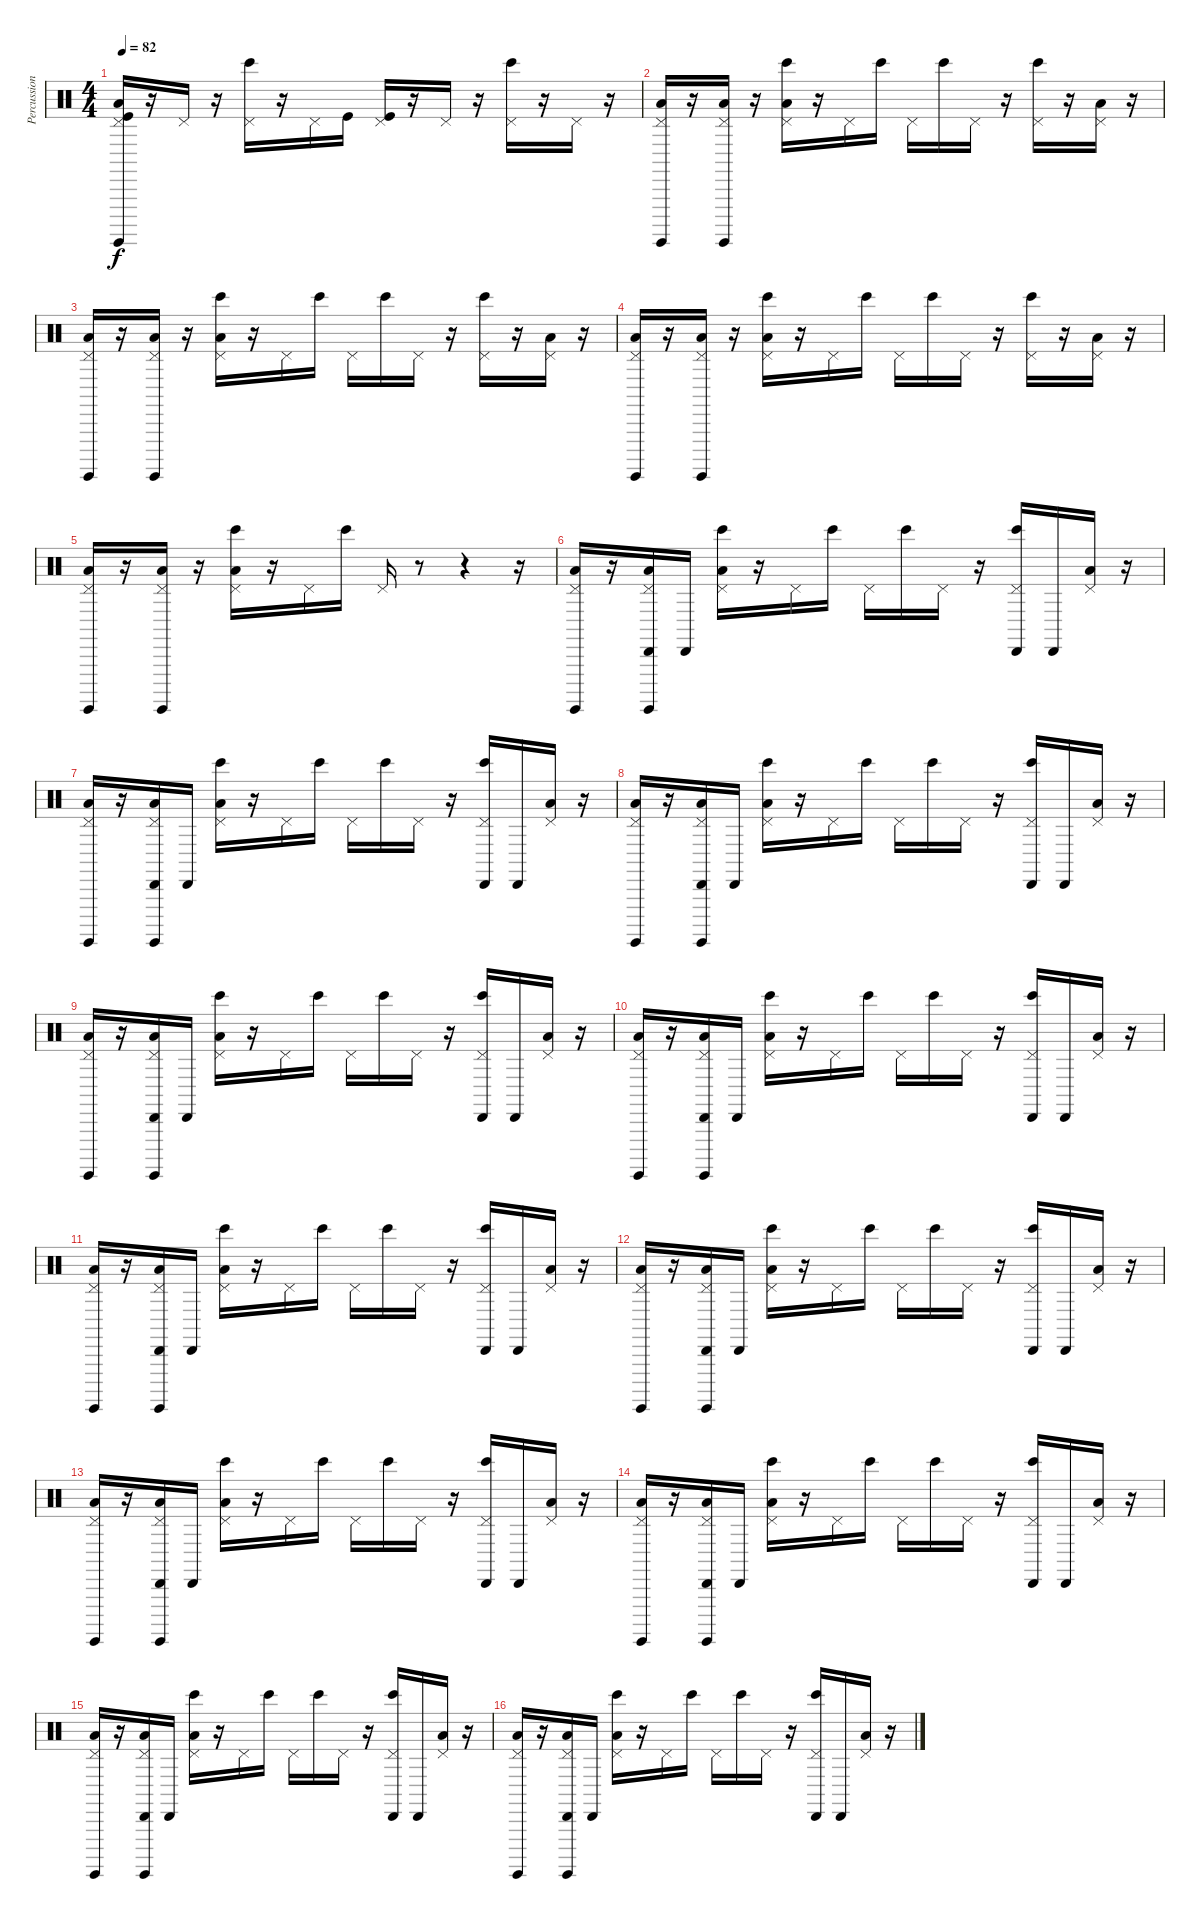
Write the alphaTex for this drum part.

\track ("Percussions" "Percussion") {instrument percussion}
\staff {score}
\articulation defaults
\ts (4 4)
\tempo 82
\clef neutral
\ks c
("Pedal Hi-Hat (hit)" "Low Floor Tom (hit)" "Surdo (hit)" "Kick (hit)").16{dy f} r.16 "Pedal Hi-Hat (hit)".16 r.16 ("Pedal Hi-Hat (hit)" "Bongo High (hit)").16 r.16 "Pedal Hi-Hat (hit)".16 "Kick (hit)".16 ("Pedal Hi-Hat (hit)" "Kick (hit)").16 r.16 "Pedal Hi-Hat (hit)".16 r.16 ("Pedal Hi-Hat (hit)" "Bongo High (hit)").16 r.16 "Pedal Hi-Hat (hit)".16 r.16 |
("Pedal Hi-Hat (hit)" "Low Floor Tom (hit)" "Surdo (hit)").16 r.16 ("Pedal Hi-Hat (hit)" "Low Floor Tom (hit)" "Surdo (hit)").16 r.16 ("Pedal Hi-Hat (hit)" "Low Floor Tom (hit)" "Bongo High (hit)").16 r.16 "Pedal Hi-Hat (hit)".16 "Bongo High (hit)".16 "Pedal Hi-Hat (hit)".16 "Bongo High (hit)".16 "Pedal Hi-Hat (hit)".16 r.16 ("Pedal Hi-Hat (hit)" "Bongo High (hit)").16 r.16 ("Pedal Hi-Hat (hit)" "Low Floor Tom (hit)").16 r.16 |
("Pedal Hi-Hat (hit)" "Low Floor Tom (hit)" "Surdo (hit)").16 r.16 ("Pedal Hi-Hat (hit)" "Low Floor Tom (hit)" "Surdo (hit)").16 r.16 ("Pedal Hi-Hat (hit)" "Low Floor Tom (hit)" "Bongo High (hit)").16 r.16 "Pedal Hi-Hat (hit)".16 "Bongo High (hit)".16 "Pedal Hi-Hat (hit)".16 "Bongo High (hit)".16 "Pedal Hi-Hat (hit)".16 r.16 ("Pedal Hi-Hat (hit)" "Bongo High (hit)").16 r.16 ("Pedal Hi-Hat (hit)" "Low Floor Tom (hit)").16 r.16 |
("Pedal Hi-Hat (hit)" "Low Floor Tom (hit)" "Surdo (hit)").16 r.16 ("Pedal Hi-Hat (hit)" "Low Floor Tom (hit)" "Surdo (hit)").16 r.16 ("Pedal Hi-Hat (hit)" "Low Floor Tom (hit)" "Bongo High (hit)").16 r.16 "Pedal Hi-Hat (hit)".16 "Bongo High (hit)".16 "Pedal Hi-Hat (hit)".16 "Bongo High (hit)".16 "Pedal Hi-Hat (hit)".16 r.16 ("Pedal Hi-Hat (hit)" "Bongo High (hit)").16 r.16 ("Pedal Hi-Hat (hit)" "Low Floor Tom (hit)").16 r.16 |
("Pedal Hi-Hat (hit)" "Low Floor Tom (hit)" "Surdo (hit)").16 r.16 ("Pedal Hi-Hat (hit)" "Low Floor Tom (hit)" "Surdo (hit)").16 r.16 ("Pedal Hi-Hat (hit)" "Low Floor Tom (hit)" "Bongo High (hit)").16 r.16 "Pedal Hi-Hat (hit)".16 "Bongo High (hit)".16 "Pedal Hi-Hat (hit)".16 r.8 r.4 r.16 |
("Pedal Hi-Hat (hit)" "Low Floor Tom (hit)" "Surdo (hit)").16 r.16 ("Pedal Hi-Hat (hit)" "Cabasa (hit)" "Low Floor Tom (hit)" "Surdo (hit)").16 "Cabasa (hit)".16 ("Pedal Hi-Hat (hit)" "Low Floor Tom (hit)" "Bongo High (hit)").16 r.16 "Pedal Hi-Hat (hit)".16 "Bongo High (hit)".16 "Pedal Hi-Hat (hit)".16 "Bongo High (hit)".16 "Pedal Hi-Hat (hit)".16 r.16 ("Pedal Hi-Hat (hit)" "Cabasa (hit)" "Bongo High (hit)").16 "Cabasa (hit)".16 ("Pedal Hi-Hat (hit)" "Low Floor Tom (hit)").16 r.16 |
("Pedal Hi-Hat (hit)" "Low Floor Tom (hit)" "Surdo (hit)").16 r.16 ("Pedal Hi-Hat (hit)" "Cabasa (hit)" "Low Floor Tom (hit)" "Surdo (hit)").16 "Cabasa (hit)".16 ("Pedal Hi-Hat (hit)" "Low Floor Tom (hit)" "Bongo High (hit)").16 r.16 "Pedal Hi-Hat (hit)".16 "Bongo High (hit)".16 "Pedal Hi-Hat (hit)".16 "Bongo High (hit)".16 "Pedal Hi-Hat (hit)".16 r.16 ("Pedal Hi-Hat (hit)" "Cabasa (hit)" "Bongo High (hit)").16 "Cabasa (hit)".16 ("Pedal Hi-Hat (hit)" "Low Floor Tom (hit)").16 r.16 |
("Pedal Hi-Hat (hit)" "Low Floor Tom (hit)" "Surdo (hit)").16 r.16 ("Pedal Hi-Hat (hit)" "Cabasa (hit)" "Low Floor Tom (hit)" "Surdo (hit)").16 "Cabasa (hit)".16 ("Pedal Hi-Hat (hit)" "Low Floor Tom (hit)" "Bongo High (hit)").16 r.16 "Pedal Hi-Hat (hit)".16 "Bongo High (hit)".16 "Pedal Hi-Hat (hit)".16 "Bongo High (hit)".16 "Pedal Hi-Hat (hit)".16 r.16 ("Pedal Hi-Hat (hit)" "Cabasa (hit)" "Bongo High (hit)").16 "Cabasa (hit)".16 ("Pedal Hi-Hat (hit)" "Low Floor Tom (hit)").16 r.16 |
("Pedal Hi-Hat (hit)" "Low Floor Tom (hit)" "Surdo (hit)").16 r.16 ("Pedal Hi-Hat (hit)" "Cabasa (hit)" "Low Floor Tom (hit)" "Surdo (hit)").16 "Cabasa (hit)".16 ("Pedal Hi-Hat (hit)" "Low Floor Tom (hit)" "Bongo High (hit)").16 r.16 "Pedal Hi-Hat (hit)".16 "Bongo High (hit)".16 "Pedal Hi-Hat (hit)".16 "Bongo High (hit)".16 "Pedal Hi-Hat (hit)".16 r.16 ("Pedal Hi-Hat (hit)" "Cabasa (hit)" "Bongo High (hit)").16 "Cabasa (hit)".16 ("Pedal Hi-Hat (hit)" "Low Floor Tom (hit)").16 r.16 |
("Pedal Hi-Hat (hit)" "Low Floor Tom (hit)" "Surdo (hit)").16 r.16 ("Pedal Hi-Hat (hit)" "Cabasa (hit)" "Low Floor Tom (hit)" "Surdo (hit)").16 "Cabasa (hit)".16 ("Pedal Hi-Hat (hit)" "Low Floor Tom (hit)" "Bongo High (hit)").16 r.16 "Pedal Hi-Hat (hit)".16 "Bongo High (hit)".16 "Pedal Hi-Hat (hit)".16 "Bongo High (hit)".16 "Pedal Hi-Hat (hit)".16 r.16 ("Pedal Hi-Hat (hit)" "Cabasa (hit)" "Bongo High (hit)").16 "Cabasa (hit)".16 ("Pedal Hi-Hat (hit)" "Low Floor Tom (hit)").16 r.16 |
("Pedal Hi-Hat (hit)" "Low Floor Tom (hit)" "Surdo (hit)").16 r.16 ("Pedal Hi-Hat (hit)" "Cabasa (hit)" "Low Floor Tom (hit)" "Surdo (hit)").16 "Cabasa (hit)".16 ("Pedal Hi-Hat (hit)" "Low Floor Tom (hit)" "Bongo High (hit)").16 r.16 "Pedal Hi-Hat (hit)".16 "Bongo High (hit)".16 "Pedal Hi-Hat (hit)".16 "Bongo High (hit)".16 "Pedal Hi-Hat (hit)".16 r.16 ("Pedal Hi-Hat (hit)" "Cabasa (hit)" "Bongo High (hit)").16 "Cabasa (hit)".16 ("Pedal Hi-Hat (hit)" "Low Floor Tom (hit)").16 r.16 |
("Pedal Hi-Hat (hit)" "Low Floor Tom (hit)" "Surdo (hit)").16 r.16 ("Pedal Hi-Hat (hit)" "Cabasa (hit)" "Low Floor Tom (hit)" "Surdo (hit)").16 "Cabasa (hit)".16 ("Pedal Hi-Hat (hit)" "Low Floor Tom (hit)" "Bongo High (hit)").16 r.16 "Pedal Hi-Hat (hit)".16 "Bongo High (hit)".16 "Pedal Hi-Hat (hit)".16 "Bongo High (hit)".16 "Pedal Hi-Hat (hit)".16 r.16 ("Pedal Hi-Hat (hit)" "Cabasa (hit)" "Bongo High (hit)").16 "Cabasa (hit)".16 ("Pedal Hi-Hat (hit)" "Low Floor Tom (hit)").16 r.16 |
("Pedal Hi-Hat (hit)" "Low Floor Tom (hit)" "Surdo (hit)").16 r.16 ("Pedal Hi-Hat (hit)" "Cabasa (hit)" "Low Floor Tom (hit)" "Surdo (hit)").16 "Cabasa (hit)".16 ("Pedal Hi-Hat (hit)" "Low Floor Tom (hit)" "Bongo High (hit)").16 r.16 "Pedal Hi-Hat (hit)".16 "Bongo High (hit)".16 "Pedal Hi-Hat (hit)".16 "Bongo High (hit)".16 "Pedal Hi-Hat (hit)".16 r.16 ("Pedal Hi-Hat (hit)" "Cabasa (hit)" "Bongo High (hit)").16 "Cabasa (hit)".16 ("Pedal Hi-Hat (hit)" "Low Floor Tom (hit)").16 r.16 |
("Pedal Hi-Hat (hit)" "Low Floor Tom (hit)" "Surdo (hit)").16 r.16 ("Pedal Hi-Hat (hit)" "Cabasa (hit)" "Low Floor Tom (hit)" "Surdo (hit)").16 "Cabasa (hit)".16 ("Pedal Hi-Hat (hit)" "Low Floor Tom (hit)" "Bongo High (hit)").16 r.16 "Pedal Hi-Hat (hit)".16 "Bongo High (hit)".16 "Pedal Hi-Hat (hit)".16 "Bongo High (hit)".16 "Pedal Hi-Hat (hit)".16 r.16 ("Pedal Hi-Hat (hit)" "Cabasa (hit)" "Bongo High (hit)").16 "Cabasa (hit)".16 ("Pedal Hi-Hat (hit)" "Low Floor Tom (hit)").16 r.16 |
("Pedal Hi-Hat (hit)" "Low Floor Tom (hit)" "Surdo (hit)").16 r.16 ("Pedal Hi-Hat (hit)" "Cabasa (hit)" "Low Floor Tom (hit)" "Surdo (hit)").16 "Cabasa (hit)".16 ("Pedal Hi-Hat (hit)" "Low Floor Tom (hit)" "Bongo High (hit)").16 r.16 "Pedal Hi-Hat (hit)".16 "Bongo High (hit)".16 "Pedal Hi-Hat (hit)".16 "Bongo High (hit)".16 "Pedal Hi-Hat (hit)".16 r.16 ("Pedal Hi-Hat (hit)" "Cabasa (hit)" "Bongo High (hit)").16 "Cabasa (hit)".16 ("Pedal Hi-Hat (hit)" "Low Floor Tom (hit)").16 r.16 |
("Pedal Hi-Hat (hit)" "Low Floor Tom (hit)" "Surdo (hit)").16 r.16 ("Pedal Hi-Hat (hit)" "Cabasa (hit)" "Low Floor Tom (hit)" "Surdo (hit)").16 "Cabasa (hit)".16 ("Pedal Hi-Hat (hit)" "Low Floor Tom (hit)" "Bongo High (hit)").16 r.16 "Pedal Hi-Hat (hit)".16 "Bongo High (hit)".16 "Pedal Hi-Hat (hit)".16 "Bongo High (hit)".16 "Pedal Hi-Hat (hit)".16 r.16 ("Pedal Hi-Hat (hit)" "Cabasa (hit)" "Bongo High (hit)").16 "Cabasa (hit)".16 ("Pedal Hi-Hat (hit)" "Low Floor Tom (hit)").16 r.16
